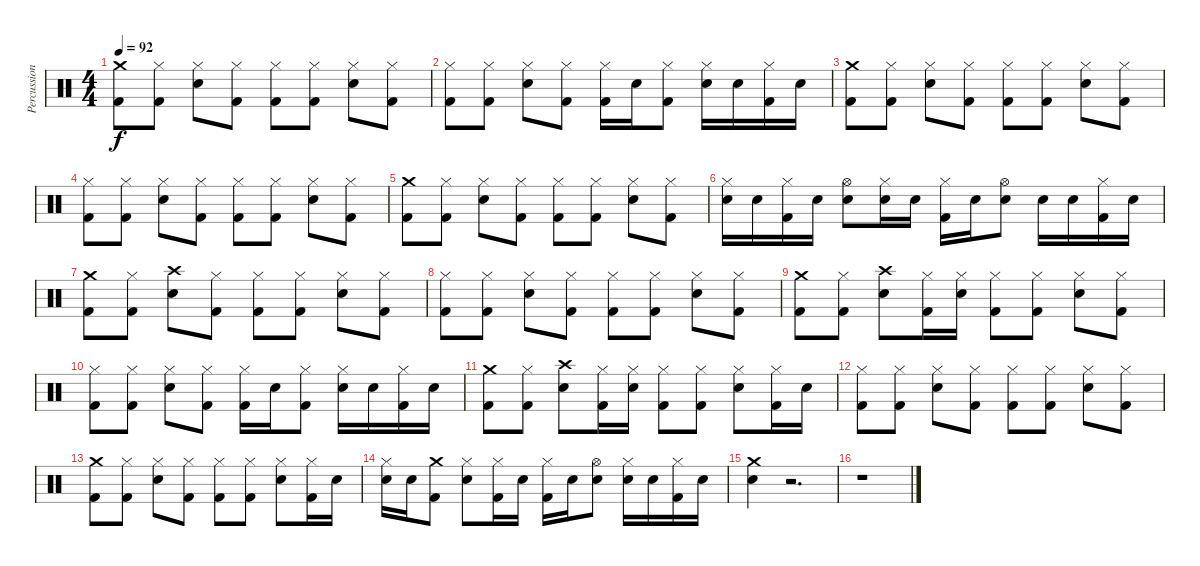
\track ("Percussions" "Percussion") {instrument percussion}
\staff {score}
\articulation defaults
\ts (4 4)
\tempo 92
\clef neutral
\ks c
("Crash medium (hit)" "Kick (hit) 2").8{dy f} ("Hi-Hat (closed)" "Kick (hit) 2").8 ("Hi-Hat (closed)" "Electric Snare (hit)").8 ("Hi-Hat (closed)" "Kick (hit) 2").8 ("Hi-Hat (closed)" "Kick (hit) 2").8 ("Hi-Hat (closed)" "Kick (hit) 2").8 ("Hi-Hat (closed)" "Electric Snare (hit)").8 ("Hi-Hat (closed)" "Kick (hit) 2").8 |
("Hi-Hat (closed)" "Kick (hit) 2").8 ("Hi-Hat (closed)" "Kick (hit) 2").8 ("Hi-Hat (closed)" "Electric Snare (hit)").8 ("Hi-Hat (closed)" "Kick (hit) 2").8 ("Hi-Hat (closed)" "Kick (hit) 2").16 "Electric Snare (hit)".16 ("Hi-Hat (closed)" "Kick (hit) 2").8 ("Hi-Hat (closed)" "Electric Snare (hit)").16 "Snare (hit) 2".16 ("Hi-Hat (closed)" "Kick (hit) 2").16 "Electric Snare (hit)".16 |
("Crash medium (hit)" "Kick (hit) 2").8 ("Hi-Hat (closed)" "Kick (hit) 2").8 ("Hi-Hat (closed)" "Electric Snare (hit)").8 ("Hi-Hat (closed)" "Kick (hit) 2").8 ("Hi-Hat (closed)" "Kick (hit) 2").8 ("Hi-Hat (closed)" "Kick (hit) 2").8 ("Hi-Hat (closed)" "Electric Snare (hit)").8 ("Hi-Hat (closed)" "Kick (hit) 2").8 |
("Hi-Hat (closed)" "Kick (hit) 2").8 ("Hi-Hat (closed)" "Kick (hit) 2").8 ("Hi-Hat (closed)" "Electric Snare (hit)").8 ("Hi-Hat (closed)" "Kick (hit) 2").8 ("Hi-Hat (closed)" "Kick (hit) 2").8 ("Hi-Hat (closed)" "Kick (hit) 2").8 ("Hi-Hat (closed)" "Electric Snare (hit)").8 ("Hi-Hat (closed)" "Kick (hit) 2").8 |
("Crash medium (hit)" "Kick (hit) 2").8 ("Hi-Hat (closed)" "Kick (hit) 2").8 ("Hi-Hat (closed)" "Electric Snare (hit)").8 ("Hi-Hat (closed)" "Kick (hit) 2").8 ("Hi-Hat (closed)" "Kick (hit) 2").8 ("Hi-Hat (closed)" "Kick (hit) 2").8 ("Hi-Hat (closed)" "Electric Snare (hit)").8 ("Hi-Hat (closed)" "Kick (hit) 2").8 |
("Hi-Hat (closed)" "Electric Snare (hit)").16 "Snare (hit) 2".16 ("Hi-Hat (closed)" "Kick (hit) 2").16 "Snare (hit) 2".16 ("Hi-Hat (open)" "Electric Snare (hit)").8 ("Hi-Hat (closed)" "Electric Snare (hit)").16 "Snare (hit) 2".16 ("Hi-Hat (closed)" "Kick (hit) 2").16 "Snare (hit) 2".16 ("Hi-Hat (open)" "Electric Snare (hit)").8 "Electric Snare (hit)".16 "Snare (hit) 2".16 ("Hi-Hat (closed)" "Kick (hit) 2").16 "Snare (hit) 2".16 |
("Crash medium (hit)" "Kick (hit) 2").8 ("Hi-Hat (closed)" "Kick (hit) 2").8 ("Crash high (hit)" "Electric Snare (hit)").8 ("Hi-Hat (closed)" "Kick (hit) 2").8 ("Hi-Hat (closed)" "Kick (hit) 2").8 ("Hi-Hat (closed)" "Kick (hit) 2").8 ("Hi-Hat (closed)" "Electric Snare (hit)").8 ("Hi-Hat (closed)" "Kick (hit) 2").8 |
("Hi-Hat (closed)" "Kick (hit) 2").8 ("Hi-Hat (closed)" "Kick (hit) 2").8 ("Hi-Hat (closed)" "Electric Snare (hit)").8 ("Hi-Hat (closed)" "Kick (hit) 2").8 ("Hi-Hat (closed)" "Kick (hit) 2").8 ("Hi-Hat (closed)" "Kick (hit) 2").8 ("Hi-Hat (closed)" "Electric Snare (hit)").8 ("Hi-Hat (closed)" "Kick (hit) 2").8 |
("Crash medium (hit)" "Kick (hit) 2").8 ("Hi-Hat (closed)" "Kick (hit) 2").8 ("Crash high (hit)" "Electric Snare (hit)").8 ("Hi-Hat (closed)" "Kick (hit) 2").16 ("Hi-Hat (closed)" "Electric Snare (hit)").16 ("Hi-Hat (closed)" "Kick (hit) 2").8 ("Hi-Hat (closed)" "Kick (hit) 2").8 ("Hi-Hat (closed)" "Electric Snare (hit)").8 ("Hi-Hat (closed)" "Kick (hit) 2").8 |
("Hi-Hat (closed)" "Kick (hit) 2").8 ("Hi-Hat (closed)" "Kick (hit) 2").8 ("Hi-Hat (closed)" "Electric Snare (hit)").8 ("Hi-Hat (closed)" "Kick (hit) 2").8 ("Hi-Hat (closed)" "Kick (hit) 2").16 "Electric Snare (hit)".16 ("Hi-Hat (closed)" "Kick (hit) 2").8 ("Hi-Hat (closed)" "Electric Snare (hit)").16 "Snare (hit) 2".16 ("Hi-Hat (closed)" "Kick (hit) 2").16 "Electric Snare (hit)".16 |
("Crash medium (hit)" "Kick (hit) 2").8 ("Hi-Hat (closed)" "Kick (hit) 2").8 ("Crash high (hit)" "Electric Snare (hit)").8 ("Hi-Hat (closed)" "Kick (hit) 2").16 ("Hi-Hat (closed)" "Electric Snare (hit)").16 ("Hi-Hat (closed)" "Kick (hit) 2").8 ("Hi-Hat (closed)" "Kick (hit) 2").8 ("Hi-Hat (closed)" "Electric Snare (hit)").8 ("Hi-Hat (closed)" "Kick (hit) 2").16 "Electric Snare (hit)".16 |
("Hi-Hat (closed)" "Kick (hit) 2").8 ("Hi-Hat (closed)" "Kick (hit) 2").8 ("Hi-Hat (closed)" "Electric Snare (hit)").8 ("Hi-Hat (closed)" "Kick (hit) 2").8 ("Hi-Hat (closed)" "Kick (hit) 2").8 ("Hi-Hat (closed)" "Kick (hit) 2").8 ("Hi-Hat (closed)" "Electric Snare (hit)").8 ("Hi-Hat (closed)" "Kick (hit) 2").8 |
("Crash medium (hit)" "Kick (hit) 2").8 ("Hi-Hat (closed)" "Kick (hit) 2").8 ("Hi-Hat (closed)" "Electric Snare (hit)").8 ("Hi-Hat (closed)" "Kick (hit) 2").8 ("Hi-Hat (closed)" "Kick (hit) 2").8 ("Hi-Hat (closed)" "Kick (hit) 2").8 ("Hi-Hat (closed)" "Electric Snare (hit)").8 ("Hi-Hat (closed)" "Kick (hit) 2").16 "Snare (hit) 2".16 |
("Hi-Hat (closed)" "Electric Snare (hit)").16 "Snare (hit) 2".16 ("Crash medium (hit)" "Kick (hit) 2").8 ("Hi-Hat (closed)" "Electric Snare (hit)").8 ("Hi-Hat (closed)" "Kick (hit) 2").16 "Snare (hit) 2".16 ("Hi-Hat (closed)" "Kick (hit) 2").16 "Electric Snare (hit)".16 ("Hi-Hat (open)" "Electric Snare (hit)").8 ("Hi-Hat (closed)" "Electric Snare (hit)").16 "Snare (hit) 2".16 ("Hi-Hat (closed)" "Kick (hit) 2").16 "Snare (hit) 2".16 |
("Crash medium (hit)" "Electric Snare (hit)").4 r.2{d} |
r.1
